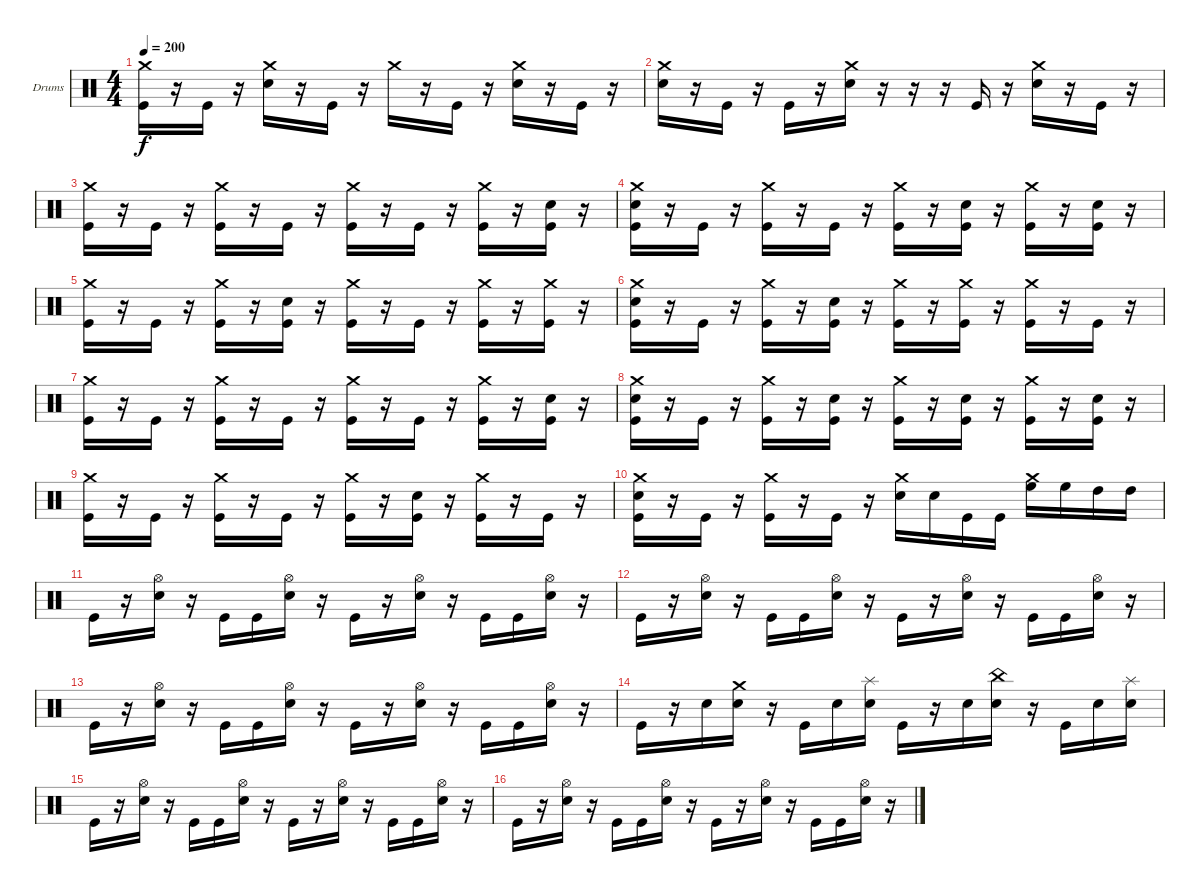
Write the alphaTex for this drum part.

\defaultSystemsLayout 4
\bracketExtendMode groupsimilarinstruments
\firstSystemTrackNameOrientation horizontal
\otherSystemsTrackNameOrientation horizontal
\track ("Drumkit" "Drums") {instrument percussion}
\staff {score}
\articulation defaults
\ts (4 4)
\tempo 200
\clef neutral
\ks c
("Crash medium (hit)" "Kick (hit)").16{dy f} r.16 "Kick (hit)".16 r.16 ("Snare (hit) 2" "Crash medium (hit)").16 r.16 "Kick (hit)".16 r.16 "Crash medium (hit)".16 r.16 "Kick (hit)".16 r.16 ("Snare (hit) 2" "Crash medium (hit)").16 r.16 "Kick (hit)".16 r.16 |
("Crash medium (hit)" "Snare (hit) 2").16 r.16 "Kick (hit)".16 r.16 "Kick (hit)".16 r.16 ("Snare (hit) 2" "Crash medium (hit)").16 r.16 r.16 r.16 "Kick (hit)".16 r.16 ("Snare (hit) 2" "Crash medium (hit)").16 r.16 "Kick (hit)".16 r.16 |
("Crash medium (hit)" "Kick (hit)").16 r.16 "Kick (hit)".16 r.16 ("Kick (hit)" "Crash medium (hit)").16 r.16 "Kick (hit)".16 r.16 ("Kick (hit)" "Crash medium (hit)").16 r.16 "Kick (hit)".16 r.16 ("Kick (hit)" "Crash medium (hit)").16 r.16 ("Snare (hit) 2" "Kick (hit)").16 r.16 |
("Crash medium (hit)" "Kick (hit)" "Snare (hit) 2").16 r.16 "Kick (hit)".16 r.16 ("Kick (hit)" "Crash medium (hit)").16 r.16 "Kick (hit)".16 r.16 ("Kick (hit)" "Crash medium (hit)").16 r.16 ("Kick (hit)" "Snare (hit) 2").16 r.16 ("Kick (hit)" "Crash medium (hit)").16 r.16 ("Snare (hit) 2" "Kick (hit)").16 r.16 |
("Crash medium (hit)" "Kick (hit)").16 r.16 "Kick (hit)".16 r.16 ("Kick (hit)" "Crash medium (hit)").16 r.16 ("Kick (hit)" "Snare (hit) 2").16 r.16 ("Kick (hit)" "Crash medium (hit)").16 r.16 "Kick (hit)".16 r.16 ("Kick (hit)" "Crash medium (hit)").16 r.16 ("Kick (hit)" "Crash medium (hit)").16 r.16 |
("Crash medium (hit)" "Kick (hit)" "Snare (hit) 2").16 r.16 "Kick (hit)".16 r.16 ("Kick (hit)" "Crash medium (hit)").16 r.16 ("Kick (hit)" "Snare (hit) 2").16 r.16 ("Kick (hit)" "Crash medium (hit)").16 r.16 ("Kick (hit)" "Crash medium (hit)").16 r.16 ("Kick (hit)" "Crash medium (hit)").16 r.16 "Kick (hit)".16 r.16 |
("Crash medium (hit)" "Kick (hit)").16 r.16 "Kick (hit)".16 r.16 ("Kick (hit)" "Crash medium (hit)").16 r.16 "Kick (hit)".16 r.16 ("Kick (hit)" "Crash medium (hit)").16 r.16 "Kick (hit)".16 r.16 ("Kick (hit)" "Crash medium (hit)").16 r.16 ("Snare (hit) 2" "Kick (hit)").16 r.16 |
("Crash medium (hit)" "Kick (hit)" "Snare (hit) 2").16 r.16 "Kick (hit)".16 r.16 ("Kick (hit)" "Crash medium (hit)").16 r.16 ("Kick (hit)" "Snare (hit) 2").16 r.16 ("Kick (hit)" "Crash medium (hit)").16 r.16 ("Kick (hit)" "Snare (hit) 2").16 r.16 ("Kick (hit)" "Crash medium (hit)").16 r.16 ("Snare (hit) 2" "Kick (hit)").16 r.16 |
("Crash medium (hit)" "Kick (hit)").16 r.16 "Kick (hit)".16 r.16 ("Kick (hit)" "Crash medium (hit)").16 r.16 "Kick (hit)".16 r.16 ("Kick (hit)" "Crash medium (hit)").16 r.16 ("Kick (hit)" "Snare (hit) 2").16 r.16 ("Kick (hit)" "Crash medium (hit)").16 r.16 "Kick (hit)".16 r.16 |
("Crash medium (hit)" "Kick (hit)" "Snare (hit) 2").16 r.16 "Kick (hit)".16 r.16 ("Kick (hit)" "Crash medium (hit)").16 r.16 "Kick (hit)".16 r.16 ("Crash medium (hit)" "Snare (hit) 2").16 "Snare (hit) 2".16 "Kick (hit)".16 "Kick (hit)".16 ("Crash medium (hit)" "High Floor Tom (hit)").16 "High Floor Tom (hit)".16 "High Tom (hit)".16 "High Tom (hit)".16 |
"Kick (hit)".16 r.16 ("Snare (hit) 2" "Hi-Hat (open)").16 r.16 "Kick (hit)".16 "Kick (hit)".16 ("Snare (hit) 2" "Hi-Hat (open)").16 r.16 "Kick (hit)".16 r.16 ("Snare (hit) 2" "Hi-Hat (open)").16 r.16 "Kick (hit)".16 "Kick (hit)".16 ("Snare (hit) 2" "Hi-Hat (open)").16 r.16 |
"Kick (hit)".16 r.16 ("Snare (hit) 2" "Hi-Hat (open)").16 r.16 "Kick (hit)".16 "Kick (hit)".16 ("Snare (hit) 2" "Hi-Hat (open)").16 r.16 "Kick (hit)".16 r.16 ("Snare (hit) 2" "Hi-Hat (open)").16 r.16 "Kick (hit)".16 "Kick (hit)".16 ("Snare (hit) 2" "Hi-Hat (open)").16 r.16 |
"Kick (hit)".16 r.16 ("Snare (hit) 2" "Hi-Hat (open)").16 r.16 "Kick (hit)".16 "Kick (hit)".16 ("Snare (hit) 2" "Hi-Hat (open)").16 r.16 "Kick (hit)".16 r.16 ("Snare (hit) 2" "Hi-Hat (open)").16 r.16 "Kick (hit)".16 "Kick (hit)".16 ("Snare (hit) 2" "Hi-Hat (open)").16 r.16 |
"Kick (hit)".16 r.16 "Snare (hit) 2".16 ("Snare (hit) 2" "Crash medium (hit)").16 r.16 "Kick (hit)".16 "Snare (hit) 2".16 ("Snare (hit) 2" "Splash (hit)").16 "Kick (hit)".16 r.16 "Snare (hit) 2".16 ("Snare (hit) 2" "China (hit)").16 r.16 "Kick (hit)".16 "Snare (hit) 2".16 ("Snare (hit) 2" "Splash (hit)").16 |
"Kick (hit)".16 r.16 ("Snare (hit) 2" "Hi-Hat (open)").16 r.16 "Kick (hit)".16 "Kick (hit)".16 ("Snare (hit) 2" "Hi-Hat (open)").16 r.16 "Kick (hit)".16 r.16 ("Snare (hit) 2" "Hi-Hat (open)").16 r.16 "Kick (hit)".16 "Kick (hit)".16 ("Snare (hit) 2" "Hi-Hat (open)").16 r.16 |
"Kick (hit)".16 r.16 ("Snare (hit) 2" "Hi-Hat (open)").16 r.16 "Kick (hit)".16 "Kick (hit)".16 ("Snare (hit) 2" "Hi-Hat (open)").16 r.16 "Kick (hit)".16 r.16 ("Snare (hit) 2" "Hi-Hat (open)").16 r.16 "Kick (hit)".16 "Kick (hit)".16 ("Snare (hit) 2" "Hi-Hat (open)").16 r.16
